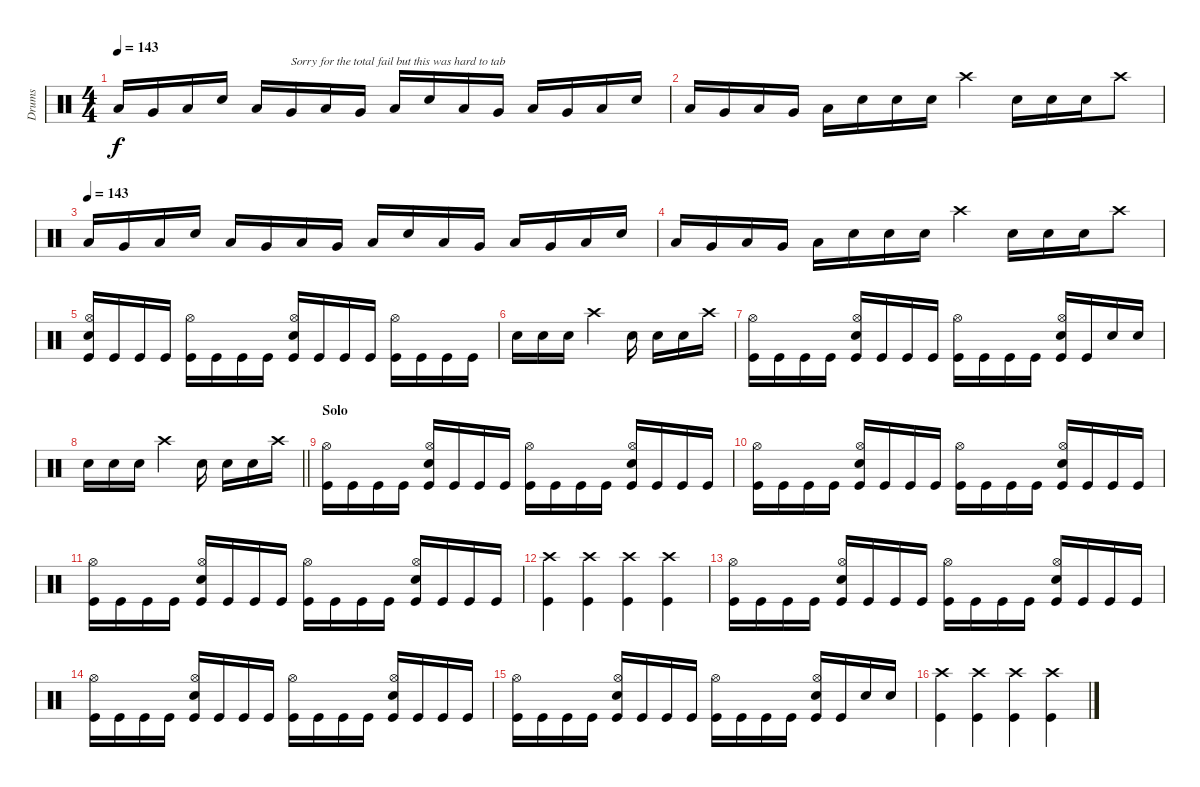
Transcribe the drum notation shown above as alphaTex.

\track ("Drums" "Drums") {instrument percussion}
\staff {score}
\articulation defaults
\ts (4 4)
\tempo 143
\clef neutral
\ks c "Low Tom (hit)".16{dy f} "Very Low Tom (hit)".16 "Low Tom (hit)".16 "Snare (hit) 2".16 "Low Tom (hit)".16 "Very Low Tom (hit)".16{txt "Sorry for the total fail but this was hard to tab"} "Low Tom (hit)".16 "Very Low Tom (hit)".16 "Low Tom (hit)".16 "Snare (hit) 2".16 "Low Tom (hit)".16 "Very Low Tom (hit)".16 "Low Tom (hit)".16 "Very Low Tom (hit)".16 "Low Tom (hit)".16 "Snare (hit) 2".16
|
"Low Tom (hit)".16 "Very Low Tom (hit)".16 "Low Tom (hit)".16 "Very Low Tom (hit)".16 "Low Tom (hit)".16 "Snare (hit) 2".16 "Snare (hit) 2".16 "Snare (hit) 2".16 "Crash high (hit)".4 "Snare (hit) 2".16 "Snare (hit) 2".16 "Snare (hit) 2".16 "Crash high (hit)".8 |
\tempo (143)
"Low Tom (hit)".16 "Very Low Tom (hit)".16 "Low Tom (hit)".16 "Snare (hit) 2".16 "Low Tom (hit)".16 "Very Low Tom (hit)".16 "Low Tom (hit)".16 "Very Low Tom (hit)".16 "Low Tom (hit)".16 "Snare (hit) 2".16 "Low Tom (hit)".16 "Very Low Tom (hit)".16 "Low Tom (hit)".16 "Very Low Tom (hit)".16 "Low Tom (hit)".16 "Snare (hit) 2".16 |
"Low Tom (hit)".16 "Very Low Tom (hit)".16 "Low Tom (hit)".16 "Very Low Tom (hit)".16 "Low Tom (hit)".16 "Snare (hit) 2".16 "Snare (hit) 2".16 "Snare (hit) 2".16 "Crash high (hit)".4 "Snare (hit) 2".16 "Snare (hit) 2".16 "Snare (hit) 2".16 "Crash high (hit)".8 |
("Hi-Hat (open)" "Snare (hit) 2" "Kick (hit)").16 "Kick (hit)".16 "Kick (hit)".16 "Kick (hit)".16 ("Hi-Hat (open)" "Kick (hit)").16 "Kick (hit)".16 "Kick (hit)".16 "Kick (hit)".16 ("Hi-Hat (open)" "Snare (hit) 2" "Kick (hit)").16 "Kick (hit)".16 "Kick (hit)".16 "Kick (hit)".16 ("Hi-Hat (open)" "Kick (hit)").16 "Kick (hit)".16 "Kick (hit)".16 "Kick (hit)".16 |
"Snare (hit) 2".16 "Snare (hit) 2".16 "Snare (hit) 2".16 "Crash high (hit)".4 "Snare (hit) 2".16 "Snare (hit) 2".16 "Snare (hit) 2".16 "Crash high (hit)".16 |
("Hi-Hat (open)" "Kick (hit)").16 "Kick (hit)".16 "Kick (hit)".16 "Kick (hit)".16 ("Hi-Hat (open)" "Snare (hit) 2" "Kick (hit)").16 "Kick (hit)".16 "Kick (hit)".16 "Kick (hit)".16 ("Hi-Hat (open)" "Kick (hit)").16 "Kick (hit)".16 "Kick (hit)".16 "Kick (hit)".16 ("Hi-Hat (open)" "Snare (hit) 2" "Kick (hit)").16 "Kick (hit)".16 "Snare (hit) 2".16 "Snare (hit) 2".16 |
\barLineRight lightlight "Snare (hit) 2".16 "Snare (hit) 2".16 "Snare (hit) 2".16 "Crash high (hit)".4 "Snare (hit) 2".16 "Snare (hit) 2".16 "Snare (hit) 2".16 "Crash high (hit)".16
|
\section ("" "Solo")
("Hi-Hat (open)" "Kick (hit)").16 "Kick (hit)".16 "Kick (hit)".16 "Kick (hit)".16 ("Hi-Hat (open)" "Snare (hit) 2" "Kick (hit)").16 "Kick (hit)".16 "Kick (hit)".16 "Kick (hit)".16 ("Hi-Hat (open)" "Kick (hit)").16 "Kick (hit)".16 "Kick (hit)".16 "Kick (hit)".16 ("Hi-Hat (open)" "Snare (hit) 2" "Kick (hit)").16 "Kick (hit)".16 "Kick (hit)".16 "Kick (hit)".16 |
("Hi-Hat (open)" "Kick (hit)").16 "Kick (hit)".16 "Kick (hit)".16 "Kick (hit)".16 ("Hi-Hat (open)" "Snare (hit) 2" "Kick (hit)").16 "Kick (hit)".16 "Kick (hit)".16 "Kick (hit)".16 ("Hi-Hat (open)" "Kick (hit)").16 "Kick (hit)".16 "Kick (hit)".16 "Kick (hit)".16 ("Hi-Hat (open)" "Snare (hit) 2" "Kick (hit)").16 "Kick (hit)".16 "Kick (hit)".16 "Kick (hit)".16 |
("Hi-Hat (open)" "Kick (hit)").16 "Kick (hit)".16 "Kick (hit)".16 "Kick (hit)".16 ("Hi-Hat (open)" "Snare (hit) 2" "Kick (hit)").16 "Kick (hit)".16 "Kick (hit)".16 "Kick (hit)".16 ("Hi-Hat (open)" "Kick (hit)").16 "Kick (hit)".16 "Kick (hit)".16 "Kick (hit)".16 ("Hi-Hat (open)" "Snare (hit) 2" "Kick (hit)").16 "Kick (hit)".16 "Kick (hit)".16 "Kick (hit)".16 |
("Crash high (hit)" "Kick (hit)").4 ("Crash high (hit)" "Kick (hit)").4 ("Crash high (hit)" "Kick (hit)").4 ("Crash high (hit)" "Kick (hit)").4 |
("Hi-Hat (open)" "Kick (hit)").16 "Kick (hit)".16 "Kick (hit)".16 "Kick (hit)".16 ("Hi-Hat (open)" "Snare (hit) 2" "Kick (hit)").16 "Kick (hit)".16 "Kick (hit)".16 "Kick (hit)".16 ("Hi-Hat (open)" "Kick (hit)").16 "Kick (hit)".16 "Kick (hit)".16 "Kick (hit)".16 ("Hi-Hat (open)" "Snare (hit) 2" "Kick (hit)").16 "Kick (hit)".16 "Kick (hit)".16 "Kick (hit)".16 |
("Hi-Hat (open)" "Kick (hit)").16 "Kick (hit)".16 "Kick (hit)".16 "Kick (hit)".16 ("Hi-Hat (open)" "Snare (hit) 2" "Kick (hit)").16 "Kick (hit)".16 "Kick (hit)".16 "Kick (hit)".16 ("Hi-Hat (open)" "Kick (hit)").16 "Kick (hit)".16 "Kick (hit)".16 "Kick (hit)".16 ("Hi-Hat (open)" "Snare (hit) 2" "Kick (hit)").16 "Kick (hit)".16 "Kick (hit)".16 "Kick (hit)".16 |
("Hi-Hat (open)" "Kick (hit)").16 "Kick (hit)".16 "Kick (hit)".16 "Kick (hit)".16 ("Hi-Hat (open)" "Snare (hit) 2" "Kick (hit)").16 "Kick (hit)".16 "Kick (hit)".16 "Kick (hit)".16 ("Hi-Hat (open)" "Kick (hit)").16 "Kick (hit)".16 "Kick (hit)".16 "Kick (hit)".16 ("Hi-Hat (open)" "Snare (hit) 2" "Kick (hit)").16 "Kick (hit)".16 "Snare (hit) 2".16 "Snare (hit) 2".16 |
("Crash high (hit)" "Kick (hit)").4 ("Crash high (hit)" "Kick (hit)").4 ("Crash high (hit)" "Kick (hit)").4 ("Crash high (hit)" "Kick (hit)").4
